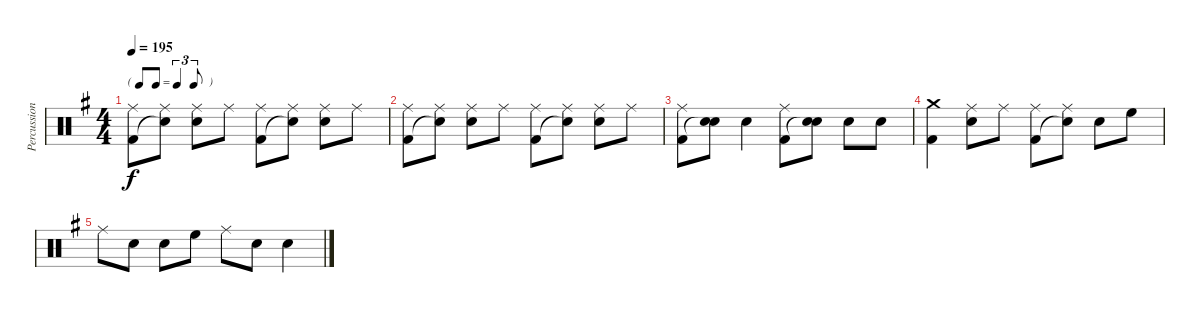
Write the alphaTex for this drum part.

\track ("Percussion" "Percussion") {instrument percussion}
\staff {score}
\articulation defaults
\ts (4 4)
\tf triplet8th
\tempo 195
\clef neutral
\ks g
("Ride (middle)" "Kick (hit) 2").8{dy f} ("Ride (middle)" "Snare (hit)"{t}).8 ("Ride (middle)" "Snare (hit) 2").8 "Ride (middle)".8 ("Ride (middle)" "Kick (hit) 2").8 ("Ride (middle)" "Snare (hit)"{t}).8 ("Ride (middle)" "Snare (hit) 2").8 "Ride (middle)".8 |
("Ride (middle)" "Kick (hit) 2").8 ("Ride (middle)" "Snare (hit)"{t}).8 ("Ride (middle)" "Snare (hit) 2").8 "Ride (middle)".8 ("Ride (middle)" "Kick (hit) 2").8 ("Ride (middle)" "Snare (hit)"{t}).8 ("Ride (middle)" "Snare (hit) 2").8 "Ride (middle)".8 |
("Ride (middle)" "Kick (hit) 2").8 ("Snare (hit) 2" "Snare (hit)"{t}).8 "Snare (hit) 2".4 ("Ride (middle)" "Kick (hit) 2").8 ("Snare (hit) 2" "Snare (hit)"{t}).8 "Snare (hit) 2".8 "Snare (hit) 2".8 |
("Crash medium (hit)" "Kick (hit) 2").4{volume 0} ("Ride (middle)" "Snare (hit) 2").8 "Ride (middle)".8 ("Ride (middle)" "Kick (hit) 2").8 ("Ride (middle)" "Snare (hit)"{t}).8 "Snare (hit) 2".8 "High Floor Tom (hit)".8 |
"Ride (middle)".8 "Snare (hit) 2".8 "Snare (hit) 2".8 "High Floor Tom (hit)".8 "Ride (middle)".8 "Snare (hit) 2".8 "Snare (hit) 2".4
